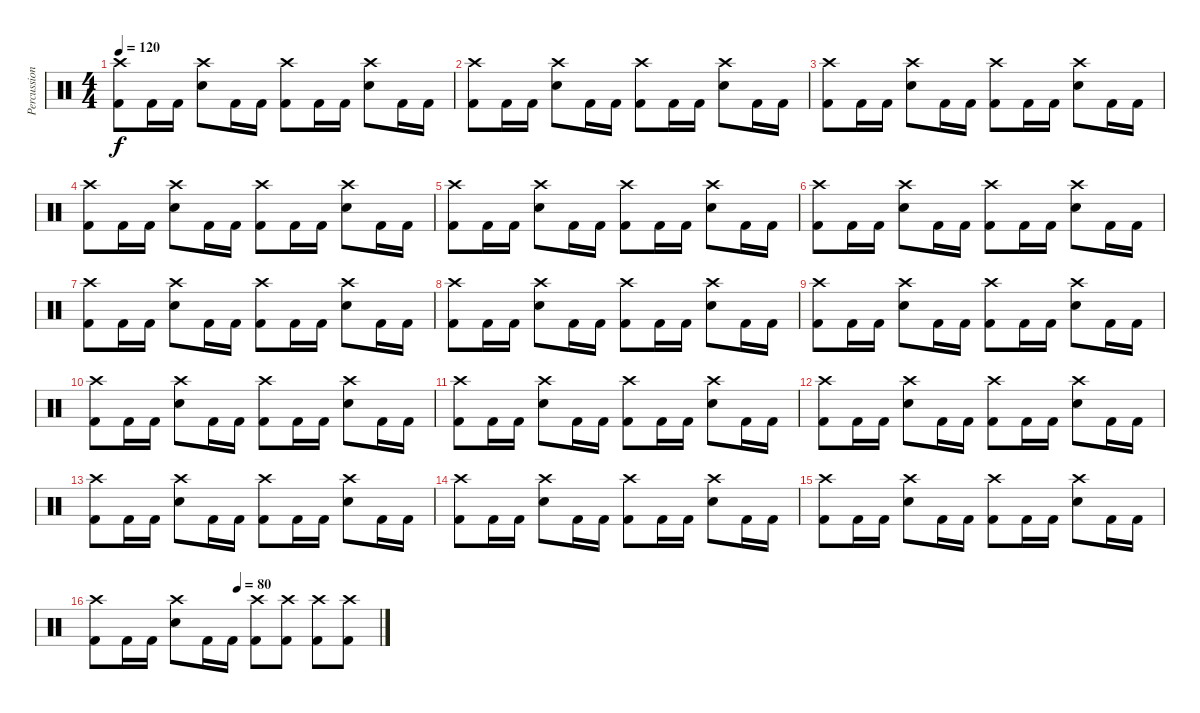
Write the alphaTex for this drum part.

\track ("Percussions" "Percussion") {instrument percussion}
\staff {score}
\articulation defaults
\ts (4 4)
\tempo 120
\clef neutral
\ks c
("Crash high (hit)" "Kick (hit) 2").8{dy f} "Kick (hit) 2".16 "Kick (hit) 2".16 ("Crash high (hit)" "Electric Snare (hit)").8 "Kick (hit) 2".16 "Kick (hit) 2".16 ("Crash high (hit)" "Kick (hit) 2").8 "Kick (hit) 2".16 "Kick (hit) 2".16 ("Crash high (hit)" "Electric Snare (hit)").8 "Kick (hit) 2".16 "Kick (hit) 2".16 |
("Crash high (hit)" "Kick (hit) 2").8 "Kick (hit) 2".16 "Kick (hit) 2".16 ("Crash high (hit)" "Electric Snare (hit)").8 "Kick (hit) 2".16 "Kick (hit) 2".16 ("Crash high (hit)" "Kick (hit) 2").8 "Kick (hit) 2".16 "Kick (hit) 2".16 ("Crash high (hit)" "Electric Snare (hit)").8 "Kick (hit) 2".16 "Kick (hit) 2".16 |
("Crash high (hit)" "Kick (hit) 2").8 "Kick (hit) 2".16 "Kick (hit) 2".16 ("Crash high (hit)" "Electric Snare (hit)").8 "Kick (hit) 2".16 "Kick (hit) 2".16 ("Crash high (hit)" "Kick (hit) 2").8 "Kick (hit) 2".16 "Kick (hit) 2".16 ("Crash high (hit)" "Electric Snare (hit)").8 "Kick (hit) 2".16 "Kick (hit) 2".16 |
("Crash high (hit)" "Kick (hit) 2").8 "Kick (hit) 2".16 "Kick (hit) 2".16 ("Crash high (hit)" "Electric Snare (hit)").8 "Kick (hit) 2".16 "Kick (hit) 2".16 ("Crash high (hit)" "Kick (hit) 2").8 "Kick (hit) 2".16 "Kick (hit) 2".16 ("Crash high (hit)" "Electric Snare (hit)").8 "Kick (hit) 2".16 "Kick (hit) 2".16 |
("Crash high (hit)" "Kick (hit) 2").8 "Kick (hit) 2".16 "Kick (hit) 2".16 ("Crash high (hit)" "Electric Snare (hit)").8 "Kick (hit) 2".16 "Kick (hit) 2".16 ("Crash high (hit)" "Kick (hit) 2").8 "Kick (hit) 2".16 "Kick (hit) 2".16 ("Crash high (hit)" "Electric Snare (hit)").8 "Kick (hit) 2".16 "Kick (hit) 2".16 |
("Crash high (hit)" "Kick (hit) 2").8 "Kick (hit) 2".16 "Kick (hit) 2".16 ("Crash high (hit)" "Electric Snare (hit)").8 "Kick (hit) 2".16 "Kick (hit) 2".16 ("Crash high (hit)" "Kick (hit) 2").8 "Kick (hit) 2".16 "Kick (hit) 2".16 ("Crash high (hit)" "Electric Snare (hit)").8 "Kick (hit) 2".16 "Kick (hit) 2".16 |
("Crash high (hit)" "Kick (hit) 2").8 "Kick (hit) 2".16 "Kick (hit) 2".16 ("Crash high (hit)" "Electric Snare (hit)").8 "Kick (hit) 2".16 "Kick (hit) 2".16 ("Crash high (hit)" "Kick (hit) 2").8 "Kick (hit) 2".16 "Kick (hit) 2".16 ("Crash high (hit)" "Electric Snare (hit)").8 "Kick (hit) 2".16 "Kick (hit) 2".16 |
("Crash high (hit)" "Kick (hit) 2").8 "Kick (hit) 2".16 "Kick (hit) 2".16 ("Crash high (hit)" "Electric Snare (hit)").8 "Kick (hit) 2".16 "Kick (hit) 2".16 ("Crash high (hit)" "Kick (hit) 2").8 "Kick (hit) 2".16 "Kick (hit) 2".16 ("Crash high (hit)" "Electric Snare (hit)").8 "Kick (hit) 2".16 "Kick (hit) 2".16 |
("Crash high (hit)" "Kick (hit) 2").8 "Kick (hit) 2".16 "Kick (hit) 2".16 ("Crash high (hit)" "Electric Snare (hit)").8 "Kick (hit) 2".16 "Kick (hit) 2".16 ("Crash high (hit)" "Kick (hit) 2").8 "Kick (hit) 2".16 "Kick (hit) 2".16 ("Crash high (hit)" "Electric Snare (hit)").8 "Kick (hit) 2".16 "Kick (hit) 2".16 |
("Crash high (hit)" "Kick (hit) 2").8 "Kick (hit) 2".16 "Kick (hit) 2".16 ("Crash high (hit)" "Electric Snare (hit)").8 "Kick (hit) 2".16 "Kick (hit) 2".16 ("Crash high (hit)" "Kick (hit) 2").8 "Kick (hit) 2".16 "Kick (hit) 2".16 ("Crash high (hit)" "Electric Snare (hit)").8 "Kick (hit) 2".16 "Kick (hit) 2".16 |
("Crash high (hit)" "Kick (hit) 2").8 "Kick (hit) 2".16 "Kick (hit) 2".16 ("Crash high (hit)" "Electric Snare (hit)").8 "Kick (hit) 2".16 "Kick (hit) 2".16 ("Crash high (hit)" "Kick (hit) 2").8 "Kick (hit) 2".16 "Kick (hit) 2".16 ("Crash high (hit)" "Electric Snare (hit)").8 "Kick (hit) 2".16 "Kick (hit) 2".16 |
("Crash high (hit)" "Kick (hit) 2").8 "Kick (hit) 2".16 "Kick (hit) 2".16 ("Crash high (hit)" "Electric Snare (hit)").8 "Kick (hit) 2".16 "Kick (hit) 2".16 ("Crash high (hit)" "Kick (hit) 2").8 "Kick (hit) 2".16 "Kick (hit) 2".16 ("Crash high (hit)" "Electric Snare (hit)").8 "Kick (hit) 2".16 "Kick (hit) 2".16 |
("Crash high (hit)" "Kick (hit) 2").8 "Kick (hit) 2".16 "Kick (hit) 2".16 ("Crash high (hit)" "Electric Snare (hit)").8 "Kick (hit) 2".16 "Kick (hit) 2".16 ("Crash high (hit)" "Kick (hit) 2").8 "Kick (hit) 2".16 "Kick (hit) 2".16 ("Crash high (hit)" "Electric Snare (hit)").8 "Kick (hit) 2".16 "Kick (hit) 2".16 |
("Crash high (hit)" "Kick (hit) 2").8 "Kick (hit) 2".16 "Kick (hit) 2".16 ("Crash high (hit)" "Electric Snare (hit)").8 "Kick (hit) 2".16 "Kick (hit) 2".16 ("Crash high (hit)" "Kick (hit) 2").8 "Kick (hit) 2".16 "Kick (hit) 2".16 ("Crash high (hit)" "Electric Snare (hit)").8 "Kick (hit) 2".16 "Kick (hit) 2".16 |
("Crash high (hit)" "Kick (hit) 2").8 "Kick (hit) 2".16 "Kick (hit) 2".16 ("Crash high (hit)" "Electric Snare (hit)").8 "Kick (hit) 2".16 "Kick (hit) 2".16 ("Crash high (hit)" "Kick (hit) 2").8 "Kick (hit) 2".16 "Kick (hit) 2".16 ("Crash high (hit)" "Electric Snare (hit)").8 "Kick (hit) 2".16 "Kick (hit) 2".16 |
\tempo (80 0.5)
("Crash high (hit)" "Kick (hit) 2").8 "Kick (hit) 2".16 "Kick (hit) 2".16 ("Crash high (hit)" "Electric Snare (hit)").8 "Kick (hit) 2".16 "Kick (hit) 2".16 ("Crash high (hit)" "Kick (hit) 2").8 ("Crash high (hit)" "Kick (hit) 2").8 ("Crash high (hit)" "Kick (hit) 2").8 ("Crash high (hit)" "Kick (hit) 2").8
